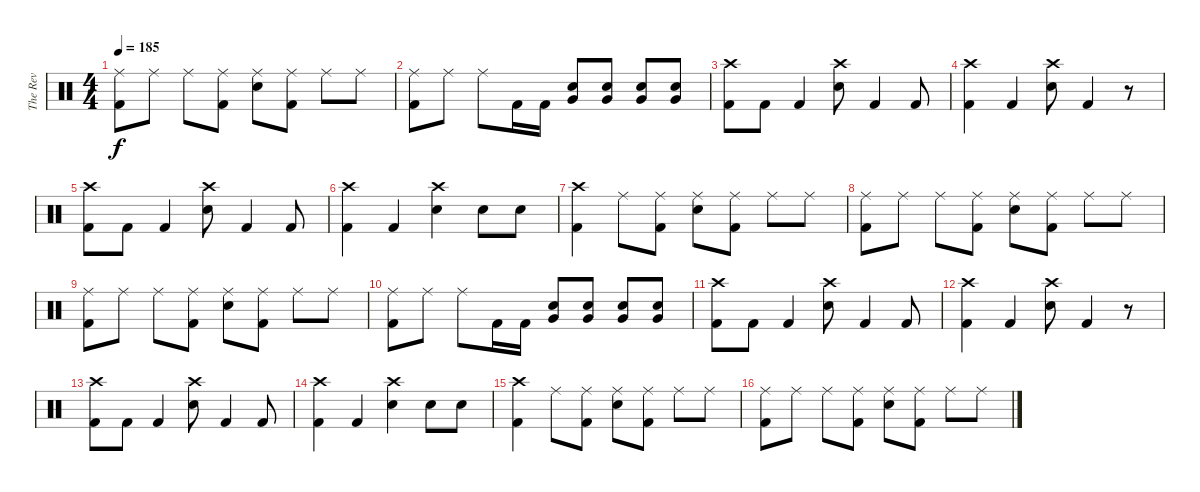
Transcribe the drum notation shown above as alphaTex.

\track ("The Rev" "The Rev") {instrument percussion}
\staff {score}
\articulation defaults
\ts (4 4)
\tempo 185
\clef neutral
\ks c
("Ride (middle)" "Kick (hit) 2").8{dy f} "Ride (middle)".8 "Ride (middle)".8 ("Ride (middle)" "Kick (hit) 2").8 ("Ride (middle)" "Electric Snare (hit)").8 ("Ride (middle)" "Kick (hit) 2").8 "Ride (middle)".8 "Ride (middle)".8 |
("Ride (middle)" "Kick (hit) 2").8 "Ride (middle)".8 "Ride (middle)".8 "Kick (hit) 2".16 "Kick (hit) 2".16 ("Very Low Tom (hit)" "Electric Snare (hit)").8 ("Very Low Tom (hit)" "Electric Snare (hit)").8 ("Very Low Tom (hit)" "Electric Snare (hit)").8 ("Very Low Tom (hit)" "Electric Snare (hit)").8 |
("Crash high (hit)" "Kick (hit) 2").8 "Kick (hit) 2".8 "Kick (hit) 2".4 ("Crash high (hit)" "Electric Snare (hit)").8 "Kick (hit) 2".4 "Kick (hit) 2".8 |
("Crash high (hit)" "Kick (hit) 2").4 "Kick (hit) 2".4 ("Crash high (hit)" "Electric Snare (hit)").8 "Kick (hit) 2".4 r.8 |
("Crash high (hit)" "Kick (hit) 2").8 "Kick (hit) 2".8 "Kick (hit) 2".4 ("Crash high (hit)" "Electric Snare (hit)").8 "Kick (hit) 2".4 "Kick (hit) 2".8 |
("Crash high (hit)" "Kick (hit) 2").4 "Kick (hit) 2".4 ("Crash high (hit)" "Electric Snare (hit)").4 "Electric Snare (hit)".8 "Electric Snare (hit)".8 |
("Crash high (hit)" "Kick (hit) 2").4 "Ride (middle)".8 ("Ride (middle)" "Kick (hit) 2").8 ("Ride (middle)" "Electric Snare (hit)").8 ("Ride (middle)" "Kick (hit) 2").8 "Ride (middle)".8 "Ride (middle)".8 |
("Ride (middle)" "Kick (hit) 2").8 "Ride (middle)".8 "Ride (middle)".8 ("Ride (middle)" "Kick (hit) 2").8 ("Ride (middle)" "Electric Snare (hit)").8 ("Ride (middle)" "Kick (hit) 2").8 "Ride (middle)".8 "Ride (middle)".8 |
("Ride (middle)" "Kick (hit) 2").8 "Ride (middle)".8 "Ride (middle)".8 ("Ride (middle)" "Kick (hit) 2").8 ("Ride (middle)" "Electric Snare (hit)").8 ("Ride (middle)" "Kick (hit) 2").8 "Ride (middle)".8 "Ride (middle)".8 |
("Ride (middle)" "Kick (hit) 2").8 "Ride (middle)".8 "Ride (middle)".8 "Kick (hit) 2".16 "Kick (hit) 2".16 ("Very Low Tom (hit)" "Electric Snare (hit)").8 ("Very Low Tom (hit)" "Electric Snare (hit)").8 ("Very Low Tom (hit)" "Electric Snare (hit)").8 ("Very Low Tom (hit)" "Electric Snare (hit)").8 |
("Crash high (hit)" "Kick (hit) 2").8 "Kick (hit) 2".8 "Kick (hit) 2".4 ("Crash high (hit)" "Electric Snare (hit)").8 "Kick (hit) 2".4 "Kick (hit) 2".8 |
("Crash high (hit)" "Kick (hit) 2").4 "Kick (hit) 2".4 ("Crash high (hit)" "Electric Snare (hit)").8 "Kick (hit) 2".4 r.8 |
("Crash high (hit)" "Kick (hit) 2").8 "Kick (hit) 2".8 "Kick (hit) 2".4 ("Crash high (hit)" "Electric Snare (hit)").8 "Kick (hit) 2".4 "Kick (hit) 2".8 |
("Crash high (hit)" "Kick (hit) 2").4 "Kick (hit) 2".4 ("Crash high (hit)" "Electric Snare (hit)").4 "Electric Snare (hit)".8 "Electric Snare (hit)".8 |
("Crash high (hit)" "Kick (hit) 2").4 "Ride (middle)".8 ("Ride (middle)" "Kick (hit) 2").8 ("Ride (middle)" "Electric Snare (hit)").8 ("Ride (middle)" "Kick (hit) 2").8 "Ride (middle)".8 "Ride (middle)".8 |
("Ride (middle)" "Kick (hit) 2").8 "Ride (middle)".8 "Ride (middle)".8 ("Ride (middle)" "Kick (hit) 2").8 ("Ride (middle)" "Electric Snare (hit)").8 ("Ride (middle)" "Kick (hit) 2").8 "Ride (middle)".8 "Ride (middle)".8
